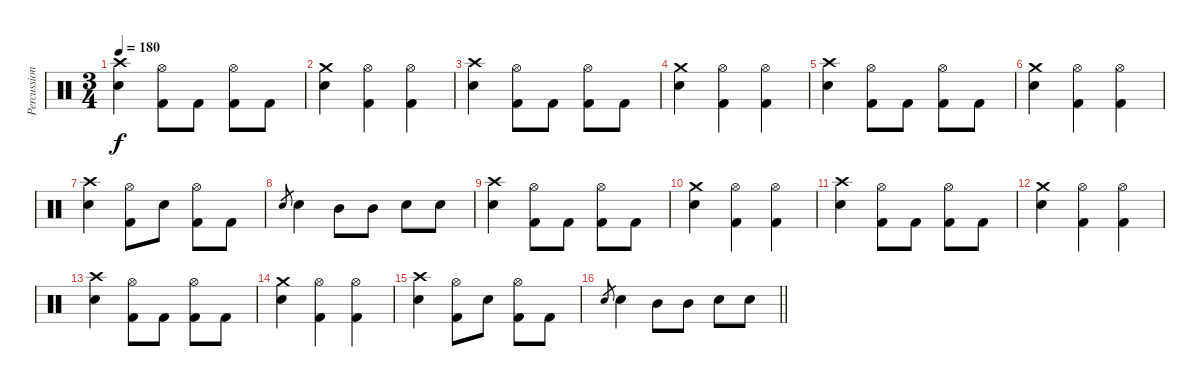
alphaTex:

\track ("Percussions" "Percussion") {instrument percussion}
\staff {score}
\articulation defaults
\ts (3 4)
\tempo 180
\clef neutral
\ks c
("Crash high (hit)" "Snare (hit) 2").4{dy f} ("Hi-Hat (open)" "Kick (hit) 2").8 "Kick (hit) 2".8 ("Hi-Hat (open)" "Kick (hit) 2").8 "Kick (hit) 2".8 |
("Crash medium (hit)" "Snare (hit) 2").4 ("Hi-Hat (open)" "Kick (hit) 2").4 ("Hi-Hat (open)" "Kick (hit) 2").4 |
("Crash high (hit)" "Snare (hit) 2").4 ("Hi-Hat (open)" "Kick (hit) 2").8 "Kick (hit) 2".8 ("Hi-Hat (open)" "Kick (hit) 2").8 "Kick (hit) 2".8 |
("Crash medium (hit)" "Snare (hit) 2").4 ("Hi-Hat (open)" "Kick (hit) 2").4 ("Hi-Hat (open)" "Kick (hit) 2").4 |
("Crash high (hit)" "Snare (hit) 2").4 ("Hi-Hat (open)" "Kick (hit) 2").8 "Kick (hit) 2".8 ("Hi-Hat (open)" "Kick (hit) 2").8 "Kick (hit) 2".8 |
("Crash medium (hit)" "Snare (hit) 2").4 ("Hi-Hat (open)" "Kick (hit) 2").4 ("Hi-Hat (open)" "Kick (hit) 2").4 |
("Crash high (hit)" "Snare (hit) 2").4 ("Hi-Hat (open)" "Kick (hit) 2").8 "Snare (hit) 2".8 ("Hi-Hat (open)" "Kick (hit) 2").8 "Kick (hit) 2".8 |
"Snare (hit) 2".8{gr} "Snare (hit) 2".4 "Mid Tom (hit)".8 "Mid Tom (hit)".8 "Snare (hit) 2".8 "Snare (hit) 2".8 |
("Crash high (hit)" "Snare (hit) 2").4 ("Hi-Hat (open)" "Kick (hit) 2").8 "Kick (hit) 2".8 ("Hi-Hat (open)" "Kick (hit) 2").8 "Kick (hit) 2".8 |
("Crash medium (hit)" "Snare (hit) 2").4 ("Hi-Hat (open)" "Kick (hit) 2").4 ("Hi-Hat (open)" "Kick (hit) 2").4 |
("Crash high (hit)" "Snare (hit) 2").4 ("Hi-Hat (open)" "Kick (hit) 2").8 "Kick (hit) 2".8 ("Hi-Hat (open)" "Kick (hit) 2").8 "Kick (hit) 2".8 |
("Crash medium (hit)" "Snare (hit) 2").4 ("Hi-Hat (open)" "Kick (hit) 2").4 ("Hi-Hat (open)" "Kick (hit) 2").4 |
("Crash high (hit)" "Snare (hit) 2").4 ("Hi-Hat (open)" "Kick (hit) 2").8 "Kick (hit) 2".8 ("Hi-Hat (open)" "Kick (hit) 2").8 "Kick (hit) 2".8 |
("Crash medium (hit)" "Snare (hit) 2").4 ("Hi-Hat (open)" "Kick (hit) 2").4 ("Hi-Hat (open)" "Kick (hit) 2").4 |
("Crash high (hit)" "Snare (hit) 2").4 ("Hi-Hat (open)" "Kick (hit) 2").8 "Snare (hit) 2".8 ("Hi-Hat (open)" "Kick (hit) 2").8 "Kick (hit) 2".8 |
\barLineRight lightlight "Snare (hit) 2".8{gr} "Snare (hit) 2".4 "Mid Tom (hit)".8 "Mid Tom (hit)".8 "Snare (hit) 2".8 "Snare (hit) 2".8
